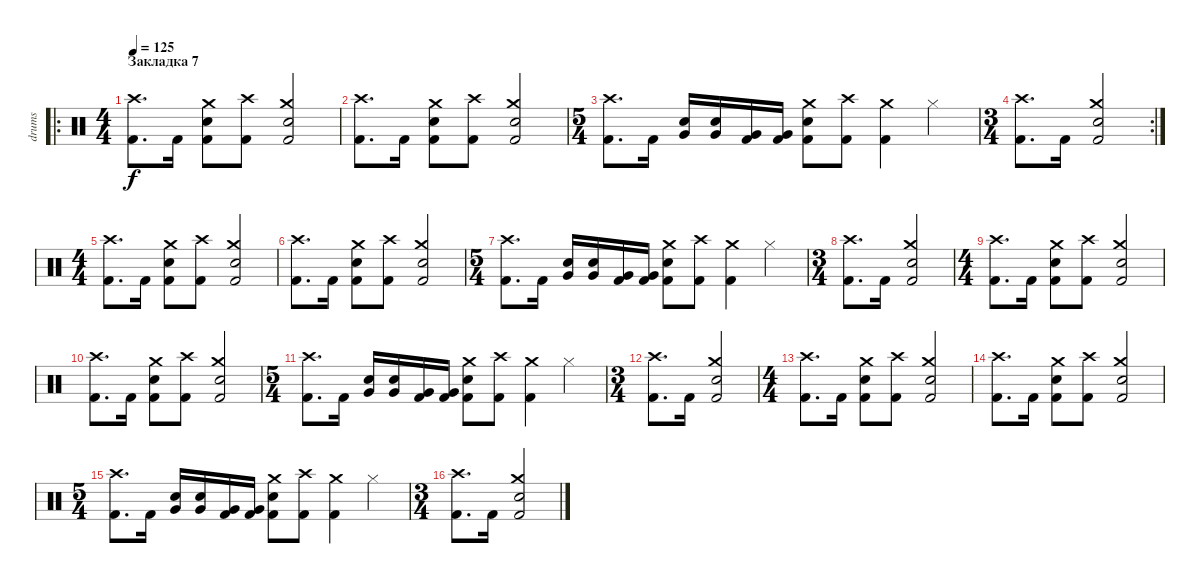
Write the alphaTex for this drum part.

\track ("drums" "drums") {instrument percussion}
\staff {score}
\articulation defaults
\ro
\ts (4 4)
\section ("" "Закладка 7")
\tempo 125
\clef neutral
\ks c
("Crash high (hit)" "Kick (hit) 2").8{d dy f} "Kick (hit) 2".16 ("Crash medium (hit)" "Electric Snare (hit)" "Kick (hit) 2").8 ("Crash high (hit)" "Kick (hit) 2").8 ("Crash medium (hit)" "Electric Snare (hit)" "Kick (hit) 2").2 |
("Crash high (hit)" "Kick (hit) 2").8{d} "Kick (hit) 2".16 ("Crash medium (hit)" "Electric Snare (hit)" "Kick (hit) 2").8 ("Crash high (hit)" "Kick (hit) 2").8 ("Crash medium (hit)" "Electric Snare (hit)" "Kick (hit) 2").2 |
\ts (5 4)
("Crash high (hit)" "Kick (hit) 2").8{d} "Kick (hit) 2".16 ("Electric Snare (hit)" "Very Low Tom (hit)").16 ("Electric Snare (hit)" "Very Low Tom (hit)").16 ("Very Low Tom (hit)" "Kick (hit) 2").16 ("Very Low Tom (hit)" "Kick (hit) 2").16 ("Crash medium (hit)" "Electric Snare (hit)" "Kick (hit) 2").8 ("Crash high (hit)" "Kick (hit) 2").8 ("Crash medium (hit)" "Kick (hit) 2").4 "Hi-Hat (closed)".4 |
\rc 2
\ts (3 4)
("Crash high (hit)" "Kick (hit) 2").8{d} "Kick (hit) 2".16 ("Crash medium (hit)" "Electric Snare (hit)" "Kick (hit) 2").2 |
\ts (4 4)
("Crash high (hit)" "Kick (hit) 2").8{d} "Kick (hit) 2".16 ("Crash medium (hit)" "Electric Snare (hit)" "Kick (hit) 2").8 ("Crash high (hit)" "Kick (hit) 2").8 ("Crash medium (hit)" "Electric Snare (hit)" "Kick (hit) 2").2 |
("Crash high (hit)" "Kick (hit) 2").8{d} "Kick (hit) 2".16 ("Crash medium (hit)" "Electric Snare (hit)" "Kick (hit) 2").8 ("Crash high (hit)" "Kick (hit) 2").8 ("Crash medium (hit)" "Electric Snare (hit)" "Kick (hit) 2").2 |
\ts (5 4)
("Crash high (hit)" "Kick (hit) 2").8{d} "Kick (hit) 2".16 ("Electric Snare (hit)" "Very Low Tom (hit)").16 ("Electric Snare (hit)" "Very Low Tom (hit)").16 ("Very Low Tom (hit)" "Kick (hit) 2").16 ("Very Low Tom (hit)" "Kick (hit) 2").16 ("Crash medium (hit)" "Electric Snare (hit)" "Kick (hit) 2").8 ("Crash high (hit)" "Kick (hit) 2").8 ("Crash medium (hit)" "Kick (hit) 2").4 "Hi-Hat (closed)".4 |
\ts (3 4)
("Crash high (hit)" "Kick (hit) 2").8{d} "Kick (hit) 2".16 ("Crash medium (hit)" "Electric Snare (hit)" "Kick (hit) 2").2 |
\ts (4 4)
("Crash high (hit)" "Kick (hit) 2").8{d} "Kick (hit) 2".16 ("Crash medium (hit)" "Electric Snare (hit)" "Kick (hit) 2").8 ("Crash high (hit)" "Kick (hit) 2").8 ("Crash medium (hit)" "Electric Snare (hit)" "Kick (hit) 2").2 |
("Crash high (hit)" "Kick (hit) 2").8{d} "Kick (hit) 2".16 ("Crash medium (hit)" "Electric Snare (hit)" "Kick (hit) 2").8 ("Crash high (hit)" "Kick (hit) 2").8 ("Crash medium (hit)" "Electric Snare (hit)" "Kick (hit) 2").2 |
\ts (5 4)
("Crash high (hit)" "Kick (hit) 2").8{d} "Kick (hit) 2".16 ("Electric Snare (hit)" "Very Low Tom (hit)").16 ("Electric Snare (hit)" "Very Low Tom (hit)").16 ("Very Low Tom (hit)" "Kick (hit) 2").16 ("Very Low Tom (hit)" "Kick (hit) 2").16 ("Crash medium (hit)" "Electric Snare (hit)" "Kick (hit) 2").8 ("Crash high (hit)" "Kick (hit) 2").8 ("Crash medium (hit)" "Kick (hit) 2").4 "Hi-Hat (closed)".4 |
\ts (3 4)
("Crash high (hit)" "Kick (hit) 2").8{d} "Kick (hit) 2".16 ("Crash medium (hit)" "Electric Snare (hit)" "Kick (hit) 2").2 |
\ts (4 4)
("Crash high (hit)" "Kick (hit) 2").8{d} "Kick (hit) 2".16 ("Crash medium (hit)" "Electric Snare (hit)" "Kick (hit) 2").8 ("Crash high (hit)" "Kick (hit) 2").8 ("Crash medium (hit)" "Electric Snare (hit)" "Kick (hit) 2").2 |
("Crash high (hit)" "Kick (hit) 2").8{d} "Kick (hit) 2".16 ("Crash medium (hit)" "Electric Snare (hit)" "Kick (hit) 2").8 ("Crash high (hit)" "Kick (hit) 2").8 ("Crash medium (hit)" "Electric Snare (hit)" "Kick (hit) 2").2 |
\ts (5 4)
("Crash high (hit)" "Kick (hit) 2").8{d} "Kick (hit) 2".16 ("Electric Snare (hit)" "Very Low Tom (hit)").16 ("Electric Snare (hit)" "Very Low Tom (hit)").16 ("Very Low Tom (hit)" "Kick (hit) 2").16 ("Very Low Tom (hit)" "Kick (hit) 2").16 ("Crash medium (hit)" "Electric Snare (hit)" "Kick (hit) 2").8 ("Crash high (hit)" "Kick (hit) 2").8 ("Crash medium (hit)" "Kick (hit) 2").4 "Hi-Hat (closed)".4 |
\ts (3 4)
("Crash high (hit)" "Kick (hit) 2").8{d} "Kick (hit) 2".16 ("Crash medium (hit)" "Electric Snare (hit)" "Kick (hit) 2").2
